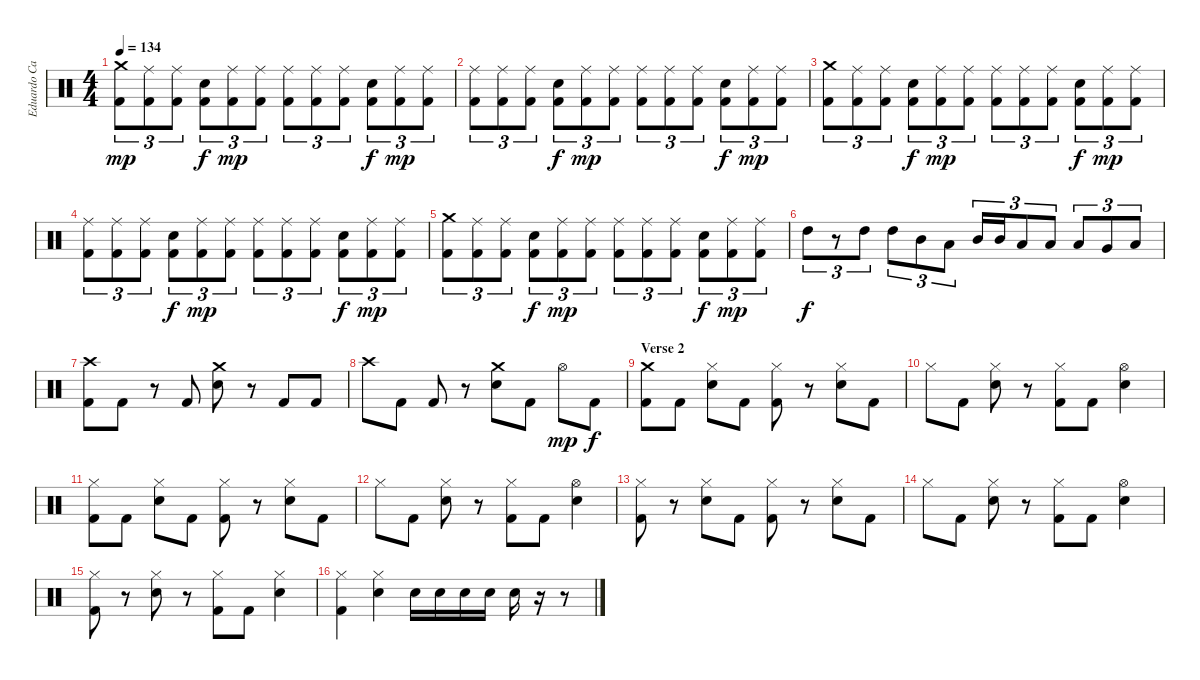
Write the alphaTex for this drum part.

\track ("Eduardo Carrillo" "Eduardo Ca") {instrument percussion}
\staff {score}
\articulation defaults
\ts (4 4)
\tempo 134
\clef neutral
\ks c
("Kick (hit) 2" "Crash medium (hit)").8{tu (3 2) dy mp} ("Kick (hit) 2" "Ride (middle)").8{tu (3 2)} ("Kick (hit) 2" "Ride (middle)").8{tu (3 2)} ("Kick (hit) 2" "Snare (hit) 2").8{tu (3 2) dy f} ("Kick (hit) 2" "Ride (middle)").8{tu (3 2) dy mp} ("Kick (hit) 2" "Ride (middle)").8{tu (3 2)} ("Kick (hit) 2" "Ride (middle)").8{tu (3 2)} ("Kick (hit) 2" "Ride (middle)").8{tu (3 2)} ("Kick (hit) 2" "Ride (middle)").8{tu (3 2)} ("Kick (hit) 2" "Snare (hit) 2").8{tu (3 2) dy f} ("Kick (hit) 2" "Ride (middle)").8{tu (3 2) dy mp} ("Kick (hit) 2" "Ride (middle)").8{tu (3 2)} |
("Kick (hit) 2" "Ride (middle)").8{tu (3 2)} ("Kick (hit) 2" "Ride (middle)").8{tu (3 2)} ("Kick (hit) 2" "Ride (middle)").8{tu (3 2)} ("Kick (hit) 2" "Snare (hit) 2").8{tu (3 2) dy f} ("Kick (hit) 2" "Ride (middle)").8{tu (3 2) dy mp} ("Kick (hit) 2" "Ride (middle)").8{tu (3 2)} ("Kick (hit) 2" "Ride (middle)").8{tu (3 2)} ("Kick (hit) 2" "Ride (middle)").8{tu (3 2)} ("Kick (hit) 2" "Ride (middle)").8{tu (3 2)} ("Kick (hit) 2" "Snare (hit) 2").8{tu (3 2) dy f} ("Kick (hit) 2" "Ride (middle)").8{tu (3 2) dy mp} ("Kick (hit) 2" "Ride (middle)").8{tu (3 2)} |
("Kick (hit) 2" "Crash medium (hit)").8{tu (3 2)} ("Kick (hit) 2" "Ride (middle)").8{tu (3 2)} ("Kick (hit) 2" "Ride (middle)").8{tu (3 2)} ("Kick (hit) 2" "Snare (hit) 2").8{tu (3 2) dy f} ("Kick (hit) 2" "Ride (middle)").8{tu (3 2) dy mp} ("Kick (hit) 2" "Ride (middle)").8{tu (3 2)} ("Kick (hit) 2" "Ride (middle)").8{tu (3 2)} ("Kick (hit) 2" "Ride (middle)").8{tu (3 2)} ("Kick (hit) 2" "Ride (middle)").8{tu (3 2)} ("Kick (hit) 2" "Snare (hit) 2").8{tu (3 2) dy f} ("Kick (hit) 2" "Ride (middle)").8{tu (3 2) dy mp} ("Kick (hit) 2" "Ride (middle)").8{tu (3 2)} |
("Kick (hit) 2" "Ride (middle)").8{tu (3 2)} ("Kick (hit) 2" "Ride (middle)").8{tu (3 2)} ("Kick (hit) 2" "Ride (middle)").8{tu (3 2)} ("Kick (hit) 2" "Snare (hit) 2").8{tu (3 2) dy f} ("Kick (hit) 2" "Ride (middle)").8{tu (3 2) dy mp} ("Kick (hit) 2" "Ride (middle)").8{tu (3 2)} ("Kick (hit) 2" "Ride (middle)").8{tu (3 2)} ("Kick (hit) 2" "Ride (middle)").8{tu (3 2)} ("Kick (hit) 2" "Ride (middle)").8{tu (3 2)} ("Kick (hit) 2" "Snare (hit) 2").8{tu (3 2) dy f} ("Kick (hit) 2" "Ride (middle)").8{tu (3 2) dy mp} ("Kick (hit) 2" "Ride (middle)").8{tu (3 2)} |
("Kick (hit) 2" "Crash medium (hit)").8{tu (3 2)} ("Kick (hit) 2" "Ride (middle)").8{tu (3 2)} ("Kick (hit) 2" "Ride (middle)").8{tu (3 2)} ("Kick (hit) 2" "Snare (hit) 2").8{tu (3 2) dy f} ("Kick (hit) 2" "Ride (middle)").8{tu (3 2) dy mp} ("Kick (hit) 2" "Ride (middle)").8{tu (3 2)} ("Kick (hit) 2" "Ride (middle)").8{tu (3 2)} ("Kick (hit) 2" "Ride (middle)").8{tu (3 2)} ("Kick (hit) 2" "Ride (middle)").8{tu (3 2)} ("Kick (hit) 2" "Snare (hit) 2").8{tu (3 2) dy f} ("Kick (hit) 2" "Ride (middle)").8{tu (3 2) dy mp} ("Kick (hit) 2" "Ride (middle)").8{tu (3 2)} |
"High Tom (hit)".8{tu (3 2) dy f} r.8{tu (3 2)} "High Tom (hit)".8{tu (3 2)} "High Tom (hit)".8{tu (3 2)} "Mid Tom (hit)".8{tu (3 2)} "Low Tom (hit)".8{tu (3 2)} "Mid Tom (hit)".16{tu (3 2)} "Mid Tom (hit)".16{tu (3 2)} "Low Tom (hit)".8{tu (3 2)} "Low Tom (hit)".8{tu (3 2)} "Low Tom (hit)".8{tu (3 2)} "Very Low Tom (hit)".8{tu (3 2)} "Low Floor Tom (hit)".8{tu (3 2)} |
("Kick (hit) 2" "Crash high (hit)").8 "Kick (hit) 2".8 r.8 "Kick (hit) 2".8 ("Crash medium (hit)" "Snare (hit) 2").8 r.8 "Kick (hit) 2".8 "Kick (hit) 2".8 |
"Crash high (hit)".8 "Kick (hit) 2".8 "Kick (hit) 2".8 r.8 ("Crash medium (hit)" "Snare (hit) 2").8 "Kick (hit) 2".8 "Hi-Hat (open)".8{dy mp} "Kick (hit) 2".8{dy f} |
\section ("" "Verse 2")
("Kick (hit) 2" "Crash medium (hit)").8 "Kick (hit) 2".8 ("Hi-Hat (closed)" "Snare (hit) 2").8 "Kick (hit) 2".8 ("Kick (hit) 2" "Hi-Hat (closed)").8 r.8 ("Hi-Hat (closed)" "Snare (hit) 2").8 "Kick (hit) 2".8 |
"Hi-Hat (closed)".8 "Kick (hit) 2".8 ("Hi-Hat (closed)" "Snare (hit) 2").8 r.8 ("Kick (hit) 2" "Hi-Hat (closed)").8 "Kick (hit) 2".8 ("Hi-Hat (open)" "Snare (hit) 2").4 |
("Kick (hit) 2" "Hi-Hat (closed)").8 "Kick (hit) 2".8 ("Hi-Hat (closed)" "Snare (hit) 2").8 "Kick (hit) 2".8 ("Kick (hit) 2" "Hi-Hat (closed)").8 r.8 ("Hi-Hat (closed)" "Snare (hit) 2").8 "Kick (hit) 2".8 |
"Hi-Hat (closed)".8 "Kick (hit) 2".8 ("Hi-Hat (closed)" "Snare (hit) 2").8 r.8 ("Kick (hit) 2" "Hi-Hat (closed)").8 "Kick (hit) 2".8 ("Hi-Hat (open)" "Snare (hit) 2").4 |
("Kick (hit) 2" "Hi-Hat (closed)").8 r.8 ("Hi-Hat (closed)" "Snare (hit) 2").8 "Kick (hit) 2".8 ("Kick (hit) 2" "Hi-Hat (closed)").8 r.8 ("Hi-Hat (closed)" "Snare (hit) 2").8 "Kick (hit) 2".8 |
"Hi-Hat (closed)".8 "Kick (hit) 2".8 ("Hi-Hat (closed)" "Snare (hit) 2").8 r.8 ("Kick (hit) 2" "Hi-Hat (closed)").8 "Kick (hit) 2".8 ("Hi-Hat (open)" "Snare (hit) 2").4 |
("Kick (hit) 2" "Hi-Hat (closed)").8 r.8 ("Hi-Hat (closed)" "Snare (hit) 2").8 r.8 ("Kick (hit) 2" "Hi-Hat (closed)").8 "Kick (hit) 2".8 ("Hi-Hat (closed)" "Snare (hit) 2").4 |
("Kick (hit) 2" "Hi-Hat (closed)").4 ("Hi-Hat (closed)" "Snare (hit) 2").4 "Snare (hit) 2".16 "Snare (hit) 2".16 "Snare (hit) 2".16 "Snare (hit) 2".16 "Snare (hit) 2".16 r.16 r.8
